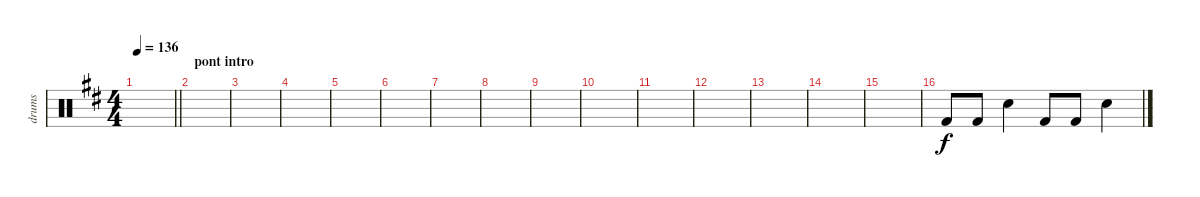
\track ("drums" "drums") {instrument percussion}
\staff {score}
\articulation defaults
\ts (4 4)
\tempo 136
\clef neutral
\barLineRight lightlight
\ks d
|
\section ("" "pont intro")
|
|
|
|
|
|
|
|
|
|
|
|
|
|
"Kick (hit) 2".8 "Kick (hit) 2".8 "Electric Snare (hit)".4 "Kick (hit) 2".8 "Kick (hit) 2".8 "Electric Snare (hit)".4
